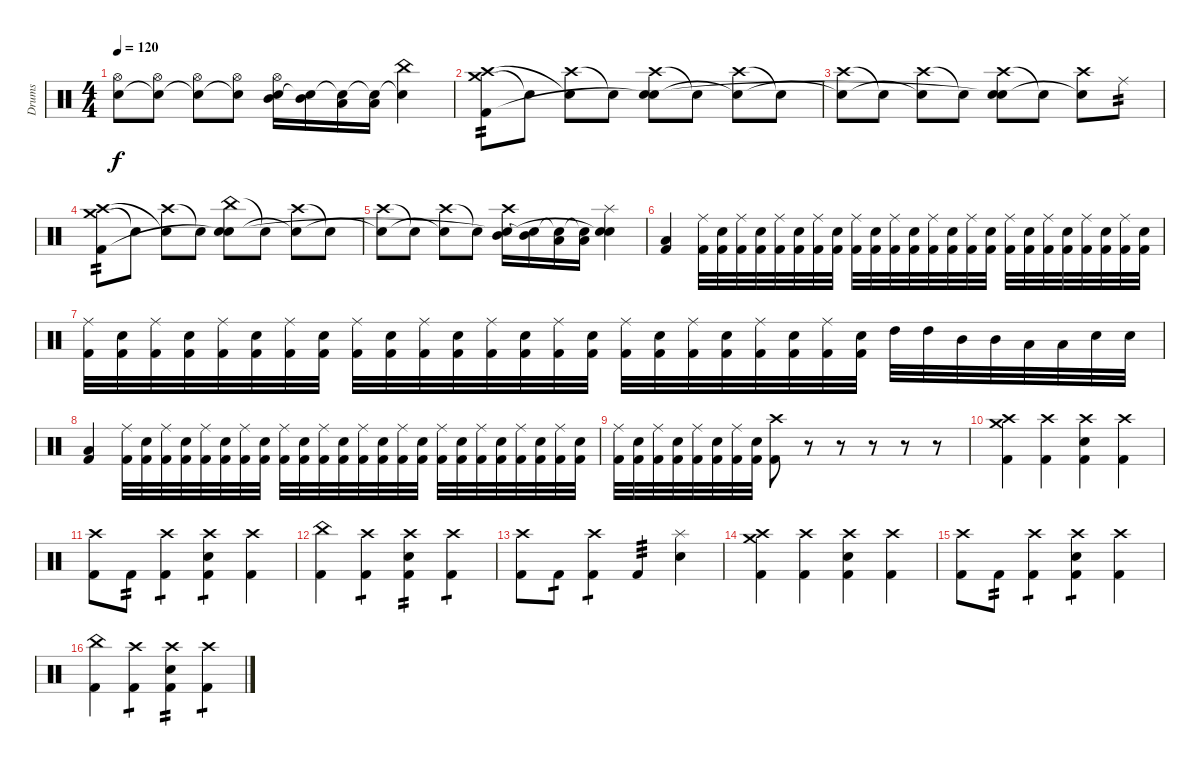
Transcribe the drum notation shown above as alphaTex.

\track ("Drums" "Drums") {instrument percussion}
\staff {score}
\articulation defaults
\ts (4 4)
\tempo 120
\clef neutral
\ks c
("Hi-Hat (open)" "Snare (hit)"{t}).8{dy f} ("Hi-Hat (open)" "Snare (hit)"{t}).8 ("Hi-Hat (open)" "Snare (hit)"{t}).8 ("Hi-Hat (open)" "Snare (hit)"{t}).8 ("Hi-Hat (open)" "Mid Tom (hit)" "Snare (hit)"{t}).16 ("Mid Tom (hit)" "Snare (hit)"{t}).16 ("Low Tom (hit)" "Snare (hit)"{t}).16 ("Low Tom (hit)" "Snare (hit)"{t}).16 ("China (hit)" "Snare (hit)"{t}).4 |
("Crash medium (hit)" "Crash high (hit)" "Kick (hit) 2").8{tp 2} "Snare (hit)"{t}.8 ("Crash high (hit)" "Snare (hit)"{t}).8 "Snare (hit)"{t}.8 ("Crash high (hit)" "Electric Snare (hit)" "Snare (hit)"{t}).8 "Snare (hit)"{t}.8 ("Crash high (hit)" "Snare (hit)"{t}).8 "Snare (hit)"{t}.8 |
("Crash high (hit)" "Snare (hit)"{t}).8 "Snare (hit)"{t}.8 ("Crash high (hit)" "Snare (hit)"{t}).8 "Snare (hit)"{t}.8 ("Crash high (hit)" "Electric Snare (hit)" "Snare (hit)"{t}).8 "Snare (hit)"{t}.8 ("Crash high (hit)" "Snare (hit)"{t}).8 "Ride (middle)".8{tp 2} |
("Crash medium (hit)" "Crash high (hit)" "Kick (hit) 2").8{tp 2} "Snare (hit)"{t}.8 ("Crash high (hit)" "Snare (hit)"{t}).8 "Snare (hit)"{t}.8 ("China (hit)" "Electric Snare (hit)" "Snare (hit)"{t}).8 "Snare (hit)"{t}.8 ("Crash high (hit)" "Snare (hit)"{t}).8 "Snare (hit)"{t}.8 |
("Crash high (hit)" "Snare (hit)"{t}).8 "Snare (hit)"{t}.8 ("Crash high (hit)" "Snare (hit)"{t}).8 "Snare (hit)"{t}.8 ("Crash high (hit)" "Mid Tom (hit)" "Snare (hit)"{t}).16 ("Mid Tom (hit)" "Snare (hit)"{t}).16 ("Low Tom (hit)" "Snare (hit)"{t}).16 ("Low Tom (hit)" "Snare (hit)"{t}).16 ("Splash (hit)" "Electric Snare (hit)" "Snare (hit)"{t}).4 |
("Low Floor Tom (hit)" "Kick (hit) 2").4 ("Ride (middle)" "Kick (hit) 2").32 ("Electric Snare (hit)" "Kick (hit) 2").32 ("Ride (middle)" "Kick (hit) 2").32 ("Electric Snare (hit)" "Kick (hit) 2").32 ("Ride (middle)" "Kick (hit) 2").32 ("Electric Snare (hit)" "Kick (hit) 2").32 ("Ride (middle)" "Kick (hit) 2").32 ("Electric Snare (hit)" "Kick (hit) 2").32 ("Ride (middle)" "Kick (hit) 2").32 ("Electric Snare (hit)" "Kick (hit) 2").32 ("Ride (middle)" "Kick (hit) 2").32 ("Electric Snare (hit)" "Kick (hit) 2").32 ("Ride (middle)" "Kick (hit) 2").32 ("Electric Snare (hit)" "Kick (hit) 2").32 ("Ride (middle)" "Kick (hit) 2").32 ("Electric Snare (hit)" "Kick (hit) 2").32 ("Ride (middle)" "Kick (hit) 2").32 ("Electric Snare (hit)" "Kick (hit) 2").32 ("Ride (middle)" "Kick (hit) 2").32 ("Electric Snare (hit)" "Kick (hit) 2").32 ("Ride (middle)" "Kick (hit) 2").32 ("Electric Snare (hit)" "Kick (hit) 2").32 ("Ride (middle)" "Kick (hit) 2").32 ("Electric Snare (hit)" "Kick (hit) 2").32 |
("Ride (middle)" "Kick (hit) 2").32 ("Electric Snare (hit)" "Kick (hit) 2").32 ("Ride (middle)" "Kick (hit) 2").32 ("Electric Snare (hit)" "Kick (hit) 2").32 ("Ride (middle)" "Kick (hit) 2").32 ("Electric Snare (hit)" "Kick (hit) 2").32 ("Ride (middle)" "Kick (hit) 2").32 ("Electric Snare (hit)" "Kick (hit) 2").32 ("Ride (middle)" "Kick (hit) 2").32 ("Electric Snare (hit)" "Kick (hit) 2").32 ("Ride (middle)" "Kick (hit) 2").32 ("Electric Snare (hit)" "Kick (hit) 2").32 ("Ride (middle)" "Kick (hit) 2").32 ("Electric Snare (hit)" "Kick (hit) 2").32 ("Ride (middle)" "Kick (hit) 2").32 ("Electric Snare (hit)" "Kick (hit) 2").32 ("Ride (middle)" "Kick (hit) 2").32 ("Electric Snare (hit)" "Kick (hit) 2").32 ("Ride (middle)" "Kick (hit) 2").32 ("Electric Snare (hit)" "Kick (hit) 2").32 ("Ride (middle)" "Kick (hit) 2").32 ("Electric Snare (hit)" "Kick (hit) 2").32 ("Ride (middle)" "Kick (hit) 2").32 ("Electric Snare (hit)" "Kick (hit) 2").32 "High Tom (hit)".32 "High Tom (hit)".32 "Mid Tom (hit)".32 "Mid Tom (hit)".32 "Low Tom (hit)".32 "Low Tom (hit)".32 "Electric Snare (hit)".32 "Electric Snare (hit)".32 |
("Low Floor Tom (hit)" "Kick (hit) 2").4 ("Ride (middle)" "Kick (hit) 2").32 ("Electric Snare (hit)" "Kick (hit) 2").32 ("Ride (middle)" "Kick (hit) 2").32 ("Electric Snare (hit)" "Kick (hit) 2").32 ("Ride (middle)" "Kick (hit) 2").32 ("Electric Snare (hit)" "Kick (hit) 2").32 ("Ride (middle)" "Kick (hit) 2").32 ("Electric Snare (hit)" "Kick (hit) 2").32 ("Ride (middle)" "Kick (hit) 2").32 ("Electric Snare (hit)" "Kick (hit) 2").32 ("Ride (middle)" "Kick (hit) 2").32 ("Electric Snare (hit)" "Kick (hit) 2").32 ("Ride (middle)" "Kick (hit) 2").32 ("Electric Snare (hit)" "Kick (hit) 2").32 ("Ride (middle)" "Kick (hit) 2").32 ("Electric Snare (hit)" "Kick (hit) 2").32 ("Ride (middle)" "Kick (hit) 2").32 ("Electric Snare (hit)" "Kick (hit) 2").32 ("Ride (middle)" "Kick (hit) 2").32 ("Electric Snare (hit)" "Kick (hit) 2").32 ("Ride (middle)" "Kick (hit) 2").32 ("Electric Snare (hit)" "Kick (hit) 2").32 ("Ride (middle)" "Kick (hit) 2").32 ("Electric Snare (hit)" "Kick (hit) 2").32 |
("Ride (middle)" "Kick (hit) 2").32 ("Electric Snare (hit)" "Kick (hit) 2").32 ("Ride (middle)" "Kick (hit) 2").32 ("Electric Snare (hit)" "Kick (hit) 2").32 ("Ride (middle)" "Kick (hit) 2").32 ("Electric Snare (hit)" "Kick (hit) 2").32 ("Ride (middle)" "Kick (hit) 2").32 ("Electric Snare (hit)" "Kick (hit) 2").32 ("Crash high (hit)" "Kick (hit) 2").8 r.8{volume 0} r.8 r.8 r.8 r.8 |
("Crash medium (hit)" "Crash high (hit)" "Kick (hit) 2").4{volume 13} ("Crash high (hit)" "Kick (hit) 2").4 ("Crash high (hit)" "Electric Snare (hit)" "Kick (hit) 2").4 ("Crash high (hit)" "Kick (hit) 2").4 |
("Crash high (hit)" "Kick (hit) 2").8 "Kick (hit) 2".8{tp 2} ("Crash high (hit)" "Kick (hit) 2").4{tp 1} ("Crash high (hit)" "Electric Snare (hit)" "Kick (hit) 2").4{tp 1} ("Crash high (hit)" "Kick (hit) 2").4 |
("China (hit)" "Kick (hit) 2").4 ("Crash high (hit)" "Kick (hit) 2").4{tp 1} ("Crash high (hit)" "Electric Snare (hit)" "Kick (hit) 2").4{tp 2} ("Crash high (hit)" "Kick (hit) 2").4{tp 1} |
("Crash high (hit)" "Kick (hit) 2").8 "Kick (hit) 2".8{tp 1} ("Crash high (hit)" "Kick (hit) 2").4{tp 1} "Kick (hit) 2".4{tp 3} ("Splash (hit)" "Electric Snare (hit)").4 |
("Crash medium (hit)" "Crash high (hit)" "Kick (hit) 2").4 ("Crash high (hit)" "Kick (hit) 2").4 ("Crash high (hit)" "Electric Snare (hit)" "Kick (hit) 2").4 ("Crash high (hit)" "Kick (hit) 2").4 |
("Crash high (hit)" "Kick (hit) 2").8 "Kick (hit) 2".8{tp 2} ("Crash high (hit)" "Kick (hit) 2").4{tp 1} ("Crash high (hit)" "Electric Snare (hit)" "Kick (hit) 2").4{tp 1} ("Crash high (hit)" "Kick (hit) 2").4 |
("China (hit)" "Kick (hit) 2").4 ("Crash high (hit)" "Kick (hit) 2").4{tp 1} ("Crash high (hit)" "Electric Snare (hit)" "Kick (hit) 2").4{tp 2} ("Crash high (hit)" "Kick (hit) 2").4{tp 1}
